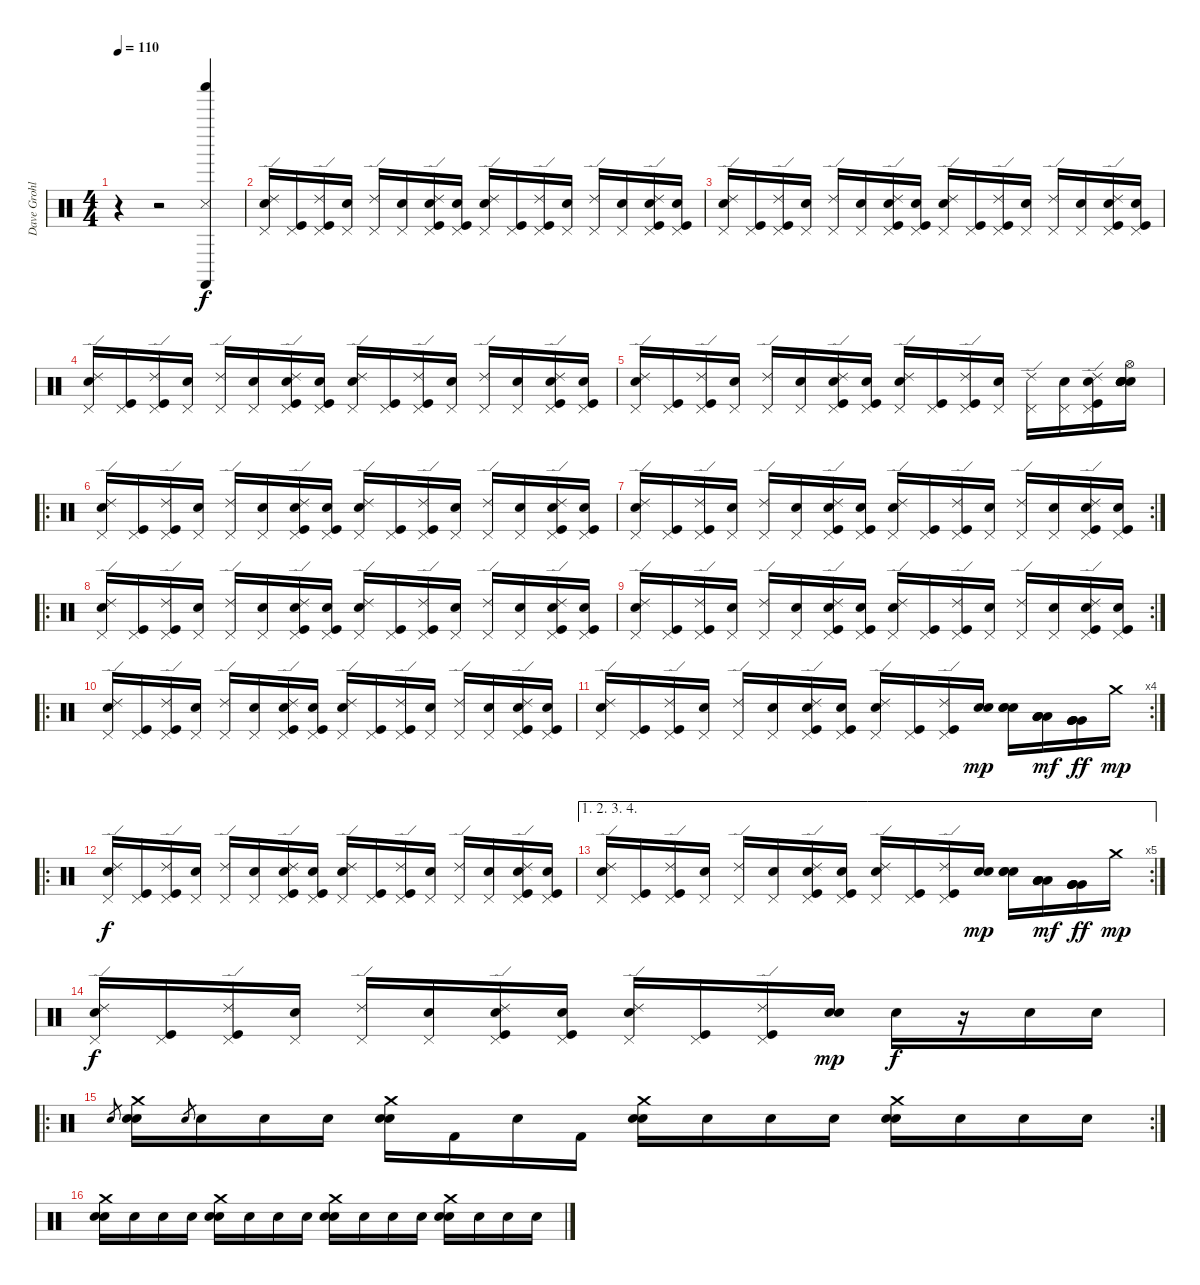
\track ("Dave Grohl" "Dave Grohl") {instrument percussion}
\staff {score}
\articulation defaults
\ts (4 4)
\tempo 110
\clef neutral
\ks c
r.4{dy f} r.2 ("Metronome (hit)" "Shaker (hit)" "Castanets (hit)").4 |
("Pedal Hi-Hat (hit)" "Ride (edge) 2" "Electric Snare (hit)").16 ("Pedal Hi-Hat (hit)" "Kick (hit)").16 ("Pedal Hi-Hat (hit)" "Ride (edge) 2" "Kick (hit)").16 ("Pedal Hi-Hat (hit)" "Snare (hit) 2").16 ("Pedal Hi-Hat (hit)" "Ride (edge) 2").16 ("Pedal Hi-Hat (hit)" "Electric Snare (hit)").16 ("Pedal Hi-Hat (hit)" "Ride (edge) 2" "Snare (hit) 2" "Kick (hit)").16 ("Pedal Hi-Hat (hit)" "Snare (hit) 2" "Kick (hit)").16 ("Pedal Hi-Hat (hit)" "Ride (edge) 2" "Electric Snare (hit)").16 ("Pedal Hi-Hat (hit)" "Kick (hit)").16 ("Pedal Hi-Hat (hit)" "Ride (edge) 2" "Kick (hit)").16 ("Pedal Hi-Hat (hit)" "Snare (hit) 2").16 ("Pedal Hi-Hat (hit)" "Ride (edge) 2").16 ("Pedal Hi-Hat (hit)" "Electric Snare (hit)").16 ("Pedal Hi-Hat (hit)" "Ride (edge) 2" "Snare (hit) 2" "Kick (hit)").16 ("Pedal Hi-Hat (hit)" "Snare (hit) 2" "Kick (hit)").16 |
("Pedal Hi-Hat (hit)" "Ride (edge) 2" "Electric Snare (hit)").16 ("Pedal Hi-Hat (hit)" "Kick (hit)").16 ("Pedal Hi-Hat (hit)" "Ride (edge) 2" "Kick (hit)").16 ("Pedal Hi-Hat (hit)" "Snare (hit) 2").16 ("Pedal Hi-Hat (hit)" "Ride (edge) 2").16 ("Pedal Hi-Hat (hit)" "Electric Snare (hit)").16 ("Pedal Hi-Hat (hit)" "Ride (edge) 2" "Snare (hit) 2" "Kick (hit)").16 ("Pedal Hi-Hat (hit)" "Snare (hit) 2" "Kick (hit)").16 ("Pedal Hi-Hat (hit)" "Ride (edge) 2" "Electric Snare (hit)").16 ("Pedal Hi-Hat (hit)" "Kick (hit)").16 ("Pedal Hi-Hat (hit)" "Ride (edge) 2" "Kick (hit)").16 ("Pedal Hi-Hat (hit)" "Snare (hit) 2").16 ("Pedal Hi-Hat (hit)" "Ride (edge) 2").16 ("Pedal Hi-Hat (hit)" "Electric Snare (hit)").16 ("Pedal Hi-Hat (hit)" "Ride (edge) 2" "Snare (hit) 2" "Kick (hit)").16 ("Pedal Hi-Hat (hit)" "Snare (hit) 2" "Kick (hit)").16 |
("Pedal Hi-Hat (hit)" "Ride (edge) 2" "Electric Snare (hit)").16 ("Pedal Hi-Hat (hit)" "Kick (hit)").16 ("Pedal Hi-Hat (hit)" "Ride (edge) 2" "Kick (hit)").16 ("Pedal Hi-Hat (hit)" "Snare (hit) 2").16 ("Pedal Hi-Hat (hit)" "Ride (edge) 2").16 ("Pedal Hi-Hat (hit)" "Electric Snare (hit)").16 ("Pedal Hi-Hat (hit)" "Ride (edge) 2" "Snare (hit) 2" "Kick (hit)").16 ("Pedal Hi-Hat (hit)" "Snare (hit) 2" "Kick (hit)").16 ("Pedal Hi-Hat (hit)" "Ride (edge) 2" "Electric Snare (hit)").16 ("Pedal Hi-Hat (hit)" "Kick (hit)").16 ("Pedal Hi-Hat (hit)" "Ride (edge) 2" "Kick (hit)").16 ("Pedal Hi-Hat (hit)" "Snare (hit) 2").16 ("Pedal Hi-Hat (hit)" "Ride (edge) 2").16 ("Pedal Hi-Hat (hit)" "Electric Snare (hit)").16 ("Pedal Hi-Hat (hit)" "Ride (edge) 2" "Snare (hit) 2" "Kick (hit)").16 ("Pedal Hi-Hat (hit)" "Snare (hit) 2" "Kick (hit)").16 |
("Pedal Hi-Hat (hit)" "Ride (edge) 2" "Electric Snare (hit)").16 ("Pedal Hi-Hat (hit)" "Kick (hit)").16 ("Pedal Hi-Hat (hit)" "Ride (edge) 2" "Kick (hit)").16 ("Pedal Hi-Hat (hit)" "Snare (hit) 2").16 ("Pedal Hi-Hat (hit)" "Ride (edge) 2").16 ("Pedal Hi-Hat (hit)" "Electric Snare (hit)").16 ("Pedal Hi-Hat (hit)" "Ride (edge) 2" "Snare (hit) 2" "Kick (hit)").16 ("Pedal Hi-Hat (hit)" "Snare (hit) 2" "Kick (hit)").16 ("Pedal Hi-Hat (hit)" "Ride (edge) 2" "Electric Snare (hit)").16 ("Pedal Hi-Hat (hit)" "Kick (hit)").16 ("Pedal Hi-Hat (hit)" "Ride (edge) 2" "Kick (hit)").16 ("Pedal Hi-Hat (hit)" "Snare (hit) 2").16 ("Pedal Hi-Hat (hit)" "Ride (edge) 2").16 ("Pedal Hi-Hat (hit)" "Electric Snare (hit)").16 ("Pedal Hi-Hat (hit)" "Ride (edge) 2" "Snare (hit) 2" "Kick (hit)").16 ("Hi-Hat (open)" "Snare (hit) 2" "Snare (hit) 2" "Snare (hit) 2" "Snare (hit) 2" "Snare (hit) 2").16 |
\ro
("Pedal Hi-Hat (hit)" "Ride (edge) 2" "Electric Snare (hit)").16 ("Pedal Hi-Hat (hit)" "Kick (hit)").16 ("Pedal Hi-Hat (hit)" "Ride (edge) 2" "Kick (hit)").16 ("Pedal Hi-Hat (hit)" "Snare (hit) 2").16 ("Pedal Hi-Hat (hit)" "Ride (edge) 2").16 ("Pedal Hi-Hat (hit)" "Electric Snare (hit)").16 ("Pedal Hi-Hat (hit)" "Ride (edge) 2" "Snare (hit) 2" "Kick (hit)").16 ("Pedal Hi-Hat (hit)" "Snare (hit) 2" "Kick (hit)").16 ("Pedal Hi-Hat (hit)" "Ride (edge) 2" "Electric Snare (hit)").16 ("Pedal Hi-Hat (hit)" "Kick (hit)").16 ("Pedal Hi-Hat (hit)" "Ride (edge) 2" "Kick (hit)").16 ("Pedal Hi-Hat (hit)" "Snare (hit) 2").16 ("Pedal Hi-Hat (hit)" "Ride (edge) 2").16 ("Pedal Hi-Hat (hit)" "Electric Snare (hit)").16 ("Pedal Hi-Hat (hit)" "Ride (edge) 2" "Snare (hit) 2" "Kick (hit)").16 ("Pedal Hi-Hat (hit)" "Snare (hit) 2" "Kick (hit)").16 |
\rc 2
("Pedal Hi-Hat (hit)" "Ride (edge) 2" "Electric Snare (hit)").16 ("Pedal Hi-Hat (hit)" "Kick (hit)").16 ("Pedal Hi-Hat (hit)" "Ride (edge) 2" "Kick (hit)").16 ("Pedal Hi-Hat (hit)" "Snare (hit) 2").16 ("Pedal Hi-Hat (hit)" "Ride (edge) 2").16 ("Pedal Hi-Hat (hit)" "Electric Snare (hit)").16 ("Pedal Hi-Hat (hit)" "Ride (edge) 2" "Snare (hit) 2" "Kick (hit)").16 ("Pedal Hi-Hat (hit)" "Snare (hit) 2" "Kick (hit)").16 ("Pedal Hi-Hat (hit)" "Ride (edge) 2" "Electric Snare (hit)").16 ("Pedal Hi-Hat (hit)" "Kick (hit)").16 ("Pedal Hi-Hat (hit)" "Ride (edge) 2" "Kick (hit)").16 ("Pedal Hi-Hat (hit)" "Snare (hit) 2").16 ("Pedal Hi-Hat (hit)" "Ride (edge) 2").16 ("Pedal Hi-Hat (hit)" "Electric Snare (hit)").16 ("Pedal Hi-Hat (hit)" "Ride (edge) 2" "Snare (hit) 2" "Kick (hit)").16 ("Pedal Hi-Hat (hit)" "Snare (hit) 2" "Kick (hit)").16 |
\ro
("Pedal Hi-Hat (hit)" "Ride (edge) 2" "Electric Snare (hit)").16 ("Pedal Hi-Hat (hit)" "Kick (hit)").16 ("Pedal Hi-Hat (hit)" "Ride (edge) 2" "Kick (hit)").16 ("Pedal Hi-Hat (hit)" "Snare (hit) 2").16 ("Pedal Hi-Hat (hit)" "Ride (edge) 2").16 ("Pedal Hi-Hat (hit)" "Electric Snare (hit)").16 ("Pedal Hi-Hat (hit)" "Ride (edge) 2" "Snare (hit) 2" "Kick (hit)").16 ("Pedal Hi-Hat (hit)" "Snare (hit) 2" "Kick (hit)").16 ("Pedal Hi-Hat (hit)" "Ride (edge) 2" "Electric Snare (hit)").16 ("Pedal Hi-Hat (hit)" "Kick (hit)").16 ("Pedal Hi-Hat (hit)" "Ride (edge) 2" "Kick (hit)").16 ("Pedal Hi-Hat (hit)" "Snare (hit) 2").16 ("Pedal Hi-Hat (hit)" "Ride (edge) 2").16 ("Pedal Hi-Hat (hit)" "Electric Snare (hit)").16 ("Pedal Hi-Hat (hit)" "Ride (edge) 2" "Snare (hit) 2" "Kick (hit)").16 ("Pedal Hi-Hat (hit)" "Snare (hit) 2" "Kick (hit)").16 |
\rc 2
("Pedal Hi-Hat (hit)" "Ride (edge) 2" "Electric Snare (hit)").16 ("Pedal Hi-Hat (hit)" "Kick (hit)").16 ("Pedal Hi-Hat (hit)" "Ride (edge) 2" "Kick (hit)").16 ("Pedal Hi-Hat (hit)" "Snare (hit) 2").16 ("Pedal Hi-Hat (hit)" "Ride (edge) 2").16 ("Pedal Hi-Hat (hit)" "Electric Snare (hit)").16 ("Pedal Hi-Hat (hit)" "Ride (edge) 2" "Snare (hit) 2" "Kick (hit)").16 ("Pedal Hi-Hat (hit)" "Snare (hit) 2" "Kick (hit)").16 ("Pedal Hi-Hat (hit)" "Ride (edge) 2" "Electric Snare (hit)").16 ("Pedal Hi-Hat (hit)" "Kick (hit)").16 ("Pedal Hi-Hat (hit)" "Ride (edge) 2" "Kick (hit)").16 ("Pedal Hi-Hat (hit)" "Snare (hit) 2").16 ("Pedal Hi-Hat (hit)" "Ride (edge) 2").16 ("Pedal Hi-Hat (hit)" "Electric Snare (hit)").16 ("Pedal Hi-Hat (hit)" "Ride (edge) 2" "Snare (hit) 2" "Kick (hit)").16 ("Pedal Hi-Hat (hit)" "Snare (hit) 2" "Kick (hit)").16 |
\ro
("Pedal Hi-Hat (hit)" "Ride (edge) 2" "Electric Snare (hit)").16 ("Pedal Hi-Hat (hit)" "Kick (hit)").16 ("Pedal Hi-Hat (hit)" "Ride (edge) 2" "Kick (hit)").16 ("Pedal Hi-Hat (hit)" "Snare (hit) 2").16 ("Pedal Hi-Hat (hit)" "Ride (edge) 2").16 ("Pedal Hi-Hat (hit)" "Electric Snare (hit)").16 ("Pedal Hi-Hat (hit)" "Ride (edge) 2" "Snare (hit) 2" "Kick (hit)").16 ("Pedal Hi-Hat (hit)" "Snare (hit) 2" "Kick (hit)").16 ("Pedal Hi-Hat (hit)" "Ride (edge) 2" "Electric Snare (hit)").16 ("Pedal Hi-Hat (hit)" "Kick (hit)").16 ("Pedal Hi-Hat (hit)" "Ride (edge) 2" "Kick (hit)").16 ("Pedal Hi-Hat (hit)" "Snare (hit) 2").16 ("Pedal Hi-Hat (hit)" "Ride (edge) 2").16 ("Pedal Hi-Hat (hit)" "Electric Snare (hit)").16 ("Pedal Hi-Hat (hit)" "Ride (edge) 2" "Snare (hit) 2" "Kick (hit)").16 ("Pedal Hi-Hat (hit)" "Snare (hit) 2" "Kick (hit)").16 |
\rc 4
("Pedal Hi-Hat (hit)" "Ride (edge) 2" "Electric Snare (hit)").16 ("Pedal Hi-Hat (hit)" "Kick (hit)").16 ("Pedal Hi-Hat (hit)" "Ride (edge) 2" "Kick (hit)").16 ("Pedal Hi-Hat (hit)" "Snare (hit) 2").16 ("Pedal Hi-Hat (hit)" "Ride (edge) 2").16 ("Pedal Hi-Hat (hit)" "Electric Snare (hit)").16 ("Pedal Hi-Hat (hit)" "Ride (edge) 2" "Snare (hit) 2" "Kick (hit)").16 ("Pedal Hi-Hat (hit)" "Snare (hit) 2" "Kick (hit)").16 ("Pedal Hi-Hat (hit)" "Ride (edge) 2" "Electric Snare (hit)").16 ("Pedal Hi-Hat (hit)" "Kick (hit)").16 ("Pedal Hi-Hat (hit)" "Ride (edge) 2" "Kick (hit)").16 ("Snare (hit) 2" "Snare (hit) 2").16{dy mp} ("Electric Snare (hit)" "Electric Snare (hit)" "Electric Snare (hit)").16 ("Low Tom (hit)" "Low Tom (hit)" "Low Tom (hit)" "Low Tom (hit)").16{dy mf} ("Very Low Tom (hit)" "Very Low Tom (hit)" "Very Low Tom (hit)" "Very Low Tom (hit)").16{dy ff} "Crash medium (hit)".16{dy mp} |
\ro
("Pedal Hi-Hat (hit)" "Ride (edge) 2" "Electric Snare (hit)").16{dy f} ("Pedal Hi-Hat (hit)" "Kick (hit)").16 ("Pedal Hi-Hat (hit)" "Ride (edge) 2" "Kick (hit)").16 ("Pedal Hi-Hat (hit)" "Snare (hit) 2").16 ("Pedal Hi-Hat (hit)" "Ride (edge) 2").16 ("Pedal Hi-Hat (hit)" "Electric Snare (hit)").16 ("Pedal Hi-Hat (hit)" "Ride (edge) 2" "Snare (hit) 2" "Kick (hit)").16 ("Pedal Hi-Hat (hit)" "Snare (hit) 2" "Kick (hit)").16 ("Pedal Hi-Hat (hit)" "Ride (edge) 2" "Electric Snare (hit)").16 ("Pedal Hi-Hat (hit)" "Kick (hit)").16 ("Pedal Hi-Hat (hit)" "Ride (edge) 2" "Kick (hit)").16 ("Pedal Hi-Hat (hit)" "Snare (hit) 2").16 ("Pedal Hi-Hat (hit)" "Ride (edge) 2").16 ("Pedal Hi-Hat (hit)" "Electric Snare (hit)").16 ("Pedal Hi-Hat (hit)" "Ride (edge) 2" "Snare (hit) 2" "Kick (hit)").16 ("Pedal Hi-Hat (hit)" "Snare (hit) 2" "Kick (hit)").16 |
\ae (1 2 3 4)
\rc 5
("Pedal Hi-Hat (hit)" "Ride (edge) 2" "Electric Snare (hit)").16 ("Pedal Hi-Hat (hit)" "Kick (hit)").16 ("Pedal Hi-Hat (hit)" "Ride (edge) 2" "Kick (hit)").16 ("Pedal Hi-Hat (hit)" "Snare (hit) 2").16 ("Pedal Hi-Hat (hit)" "Ride (edge) 2").16 ("Pedal Hi-Hat (hit)" "Electric Snare (hit)").16 ("Pedal Hi-Hat (hit)" "Ride (edge) 2" "Snare (hit) 2" "Kick (hit)").16 ("Pedal Hi-Hat (hit)" "Snare (hit) 2" "Kick (hit)").16 ("Pedal Hi-Hat (hit)" "Ride (edge) 2" "Electric Snare (hit)").16 ("Pedal Hi-Hat (hit)" "Kick (hit)").16 ("Pedal Hi-Hat (hit)" "Ride (edge) 2" "Kick (hit)").16 ("Snare (hit) 2" "Snare (hit) 2").16{dy mp} ("Electric Snare (hit)" "Electric Snare (hit)" "Electric Snare (hit)").16 ("Low Tom (hit)" "Low Tom (hit)" "Low Tom (hit)" "Low Tom (hit)").16{dy mf} ("Very Low Tom (hit)" "Very Low Tom (hit)" "Very Low Tom (hit)" "Very Low Tom (hit)").16{dy ff} "Crash medium (hit)".16{dy mp} |
("Pedal Hi-Hat (hit)" "Ride (edge) 2" "Electric Snare (hit)").16{dy f} ("Pedal Hi-Hat (hit)" "Kick (hit)").16 ("Pedal Hi-Hat (hit)" "Ride (edge) 2" "Kick (hit)").16 ("Pedal Hi-Hat (hit)" "Snare (hit) 2").16 ("Pedal Hi-Hat (hit)" "Ride (edge) 2").16 ("Pedal Hi-Hat (hit)" "Electric Snare (hit)").16 ("Pedal Hi-Hat (hit)" "Ride (edge) 2" "Snare (hit) 2" "Kick (hit)").16 ("Pedal Hi-Hat (hit)" "Snare (hit) 2" "Kick (hit)").16 ("Pedal Hi-Hat (hit)" "Ride (edge) 2" "Electric Snare (hit)").16 ("Pedal Hi-Hat (hit)" "Kick (hit)").16 ("Pedal Hi-Hat (hit)" "Ride (edge) 2" "Kick (hit)").16 ("Snare (hit) 2" "Snare (hit) 2").16{dy mp} "Electric Snare (hit)".16{dy f} r.16 "Electric Snare (hit)".16 "Snare (hit) 2".16 |
\ro
\rc 2 "Snare (hit) 2".8{gr}
("Crash medium (hit)" "Electric Snare (hit)" "Snare (hit) 2").16 "Snare (hit) 2".8{gr} "Snare (hit) 2".16 "Snare (hit) 2".16 "Snare (hit) 2".16 ("Crash medium (hit)" "Electric Snare (hit)" "Snare (hit) 2").16 "Kick (hit) 2".16 "Snare (hit) 2".16 "Kick (hit) 2".16 ("Crash medium (hit)" "Electric Snare (hit)" "Snare (hit) 2").16 "Snare (hit) 2".16 "Snare (hit) 2".16 "Snare (hit) 2".16 ("Crash medium (hit)" "Electric Snare (hit)" "Snare (hit) 2").16 "Snare (hit) 2".16 "Snare (hit) 2".16 "Snare (hit) 2".16 |
("Crash medium (hit)" "Electric Snare (hit)" "Snare (hit) 2").16 "Snare (hit) 2".16 "Snare (hit) 2".16 "Snare (hit) 2".16 ("Crash medium (hit)" "Electric Snare (hit)" "Snare (hit) 2").16 "Snare (hit) 2".16 "Snare (hit) 2".16 "Snare (hit) 2".16 ("Crash medium (hit)" "Electric Snare (hit)" "Snare (hit) 2").16 "Snare (hit) 2".16 "Snare (hit) 2".16 "Snare (hit) 2".16 ("Crash medium (hit)" "Electric Snare (hit)" "Snare (hit) 2").16 "Snare (hit) 2".16 "Snare (hit) 2".16 "Snare (hit) 2".16
